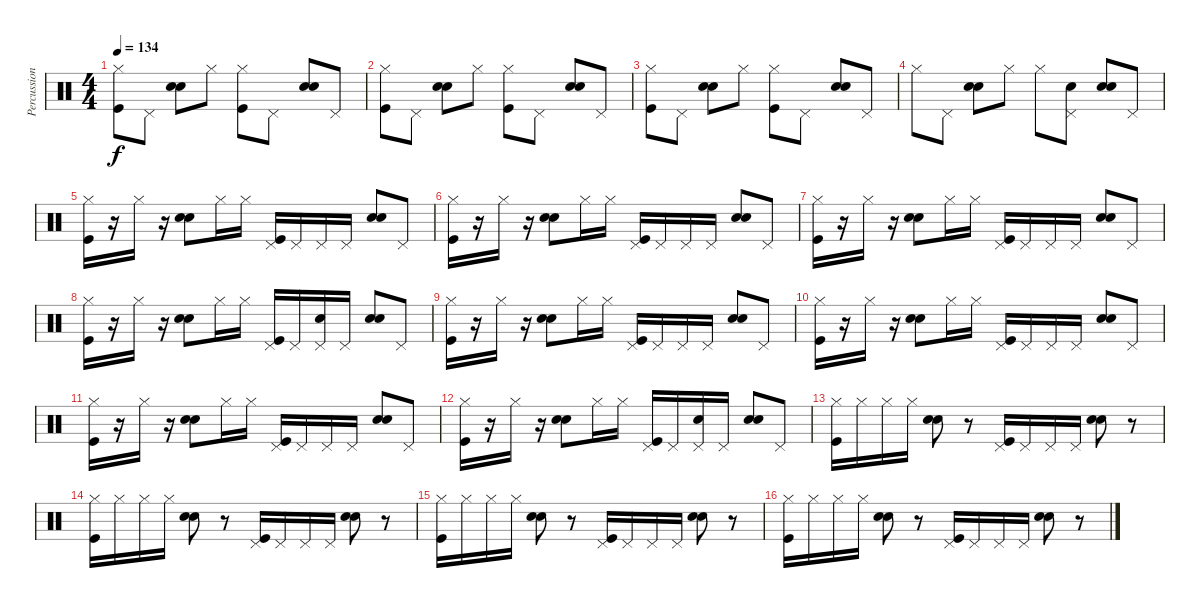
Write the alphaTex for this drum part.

\track ("Percussion" "Percussion") {instrument percussion}
\staff {score}
\articulation defaults
\ts (4 4)
\tempo 134
\clef neutral
\ks c
("Hi-Hat (closed)" "Kick (hit)").8{dy f} "Pedal Hi-Hat (hit)".8 ("Hand Clap (hit)" "Electric Snare (hit)").8 "Hi-Hat (closed)".8 ("Hi-Hat (closed)" "Kick (hit)").8 "Pedal Hi-Hat (hit)".8 ("Hand Clap (hit)" "Electric Snare (hit)").8 "Pedal Hi-Hat (hit)".8 |
("Hi-Hat (closed)" "Kick (hit)").8 "Pedal Hi-Hat (hit)".8 ("Hand Clap (hit)" "Electric Snare (hit)").8 "Hi-Hat (closed)".8 ("Hi-Hat (closed)" "Kick (hit)").8 "Pedal Hi-Hat (hit)".8 ("Hand Clap (hit)" "Electric Snare (hit)").8 "Pedal Hi-Hat (hit)".8 |
("Hi-Hat (closed)" "Kick (hit)").8 "Pedal Hi-Hat (hit)".8 ("Hand Clap (hit)" "Electric Snare (hit)").8 "Hi-Hat (closed)".8 ("Hi-Hat (closed)" "Kick (hit)").8 "Pedal Hi-Hat (hit)".8 ("Hand Clap (hit)" "Electric Snare (hit)").8 "Pedal Hi-Hat (hit)".8 |
"Hi-Hat (closed)".8 "Pedal Hi-Hat (hit)".8 ("Hand Clap (hit)" "Electric Snare (hit)").8 "Hi-Hat (closed)".8 "Hi-Hat (closed)".8 ("Pedal Hi-Hat (hit)" "Hand Clap (hit)").8 ("Hand Clap (hit)" "Electric Snare (hit)").8 "Pedal Hi-Hat (hit)".8 |
("Hi-Hat (closed)" "Kick (hit)").16 r.16 "Hi-Hat (closed)".16 r.16 ("Hand Clap (hit)" "Electric Snare (hit)").8 "Hi-Hat (closed)".16 "Hi-Hat (closed)".16 ("Pedal Hi-Hat (hit)" "Kick (hit)").16 "Pedal Hi-Hat (hit)".16 "Pedal Hi-Hat (hit)".16 "Pedal Hi-Hat (hit)".16 ("Hand Clap (hit)" "Electric Snare (hit)").8 "Pedal Hi-Hat (hit)".8 |
("Hi-Hat (closed)" "Kick (hit)").16 r.16 "Hi-Hat (closed)".16 r.16 ("Hand Clap (hit)" "Electric Snare (hit)").8 "Hi-Hat (closed)".16 "Hi-Hat (closed)".16 ("Pedal Hi-Hat (hit)" "Kick (hit)").16 "Pedal Hi-Hat (hit)".16 "Pedal Hi-Hat (hit)".16 "Pedal Hi-Hat (hit)".16 ("Hand Clap (hit)" "Electric Snare (hit)").8 "Pedal Hi-Hat (hit)".8 |
("Hi-Hat (closed)" "Kick (hit)").16 r.16 "Hi-Hat (closed)".16 r.16 ("Hand Clap (hit)" "Electric Snare (hit)").8 "Hi-Hat (closed)".16 "Hi-Hat (closed)".16 ("Pedal Hi-Hat (hit)" "Kick (hit)").16 "Pedal Hi-Hat (hit)".16 "Pedal Hi-Hat (hit)".16 "Pedal Hi-Hat (hit)".16 ("Hand Clap (hit)" "Electric Snare (hit)").8 "Pedal Hi-Hat (hit)".8 |
("Hi-Hat (closed)" "Kick (hit)").16 r.16 "Hi-Hat (closed)".16 r.16 ("Hand Clap (hit)" "Electric Snare (hit)").8 "Hi-Hat (closed)".16 "Hi-Hat (closed)".16 ("Pedal Hi-Hat (hit)" "Kick (hit)").16 "Pedal Hi-Hat (hit)".16 ("Pedal Hi-Hat (hit)" "Hand Clap (hit)").16 "Pedal Hi-Hat (hit)".16 ("Hand Clap (hit)" "Electric Snare (hit)").8 "Pedal Hi-Hat (hit)".8 |
("Hi-Hat (closed)" "Kick (hit)").16 r.16 "Hi-Hat (closed)".16 r.16 ("Hand Clap (hit)" "Electric Snare (hit)").8 "Hi-Hat (closed)".16 "Hi-Hat (closed)".16 ("Pedal Hi-Hat (hit)" "Kick (hit)").16 "Pedal Hi-Hat (hit)".16 "Pedal Hi-Hat (hit)".16 "Pedal Hi-Hat (hit)".16 ("Hand Clap (hit)" "Electric Snare (hit)").8 "Pedal Hi-Hat (hit)".8 |
("Hi-Hat (closed)" "Kick (hit)").16 r.16 "Hi-Hat (closed)".16 r.16 ("Hand Clap (hit)" "Electric Snare (hit)").8 "Hi-Hat (closed)".16 "Hi-Hat (closed)".16 ("Pedal Hi-Hat (hit)" "Kick (hit)").16 "Pedal Hi-Hat (hit)".16 "Pedal Hi-Hat (hit)".16 "Pedal Hi-Hat (hit)".16 ("Hand Clap (hit)" "Electric Snare (hit)").8 "Pedal Hi-Hat (hit)".8 |
("Hi-Hat (closed)" "Kick (hit)").16 r.16 "Hi-Hat (closed)".16 r.16 ("Hand Clap (hit)" "Electric Snare (hit)").8 "Hi-Hat (closed)".16 "Hi-Hat (closed)".16 ("Pedal Hi-Hat (hit)" "Kick (hit)").16 "Pedal Hi-Hat (hit)".16 "Pedal Hi-Hat (hit)".16 "Pedal Hi-Hat (hit)".16 ("Hand Clap (hit)" "Electric Snare (hit)").8 "Pedal Hi-Hat (hit)".8 |
("Hi-Hat (closed)" "Kick (hit)").16 r.16 "Hi-Hat (closed)".16 r.16 ("Hand Clap (hit)" "Electric Snare (hit)").8 "Hi-Hat (closed)".16 "Hi-Hat (closed)".16 ("Pedal Hi-Hat (hit)" "Kick (hit)").16 "Pedal Hi-Hat (hit)".16 ("Pedal Hi-Hat (hit)" "Hand Clap (hit)").16 "Pedal Hi-Hat (hit)".16 ("Hand Clap (hit)" "Electric Snare (hit)").8 "Pedal Hi-Hat (hit)".8 |
("Hi-Hat (closed)" "Kick (hit)").16 "Hi-Hat (closed)".16 "Hi-Hat (closed)".16 "Hi-Hat (closed)".16 ("Hand Clap (hit)" "Electric Snare (hit)").8 r.8 ("Pedal Hi-Hat (hit)" "Kick (hit)").16 "Pedal Hi-Hat (hit)".16 "Pedal Hi-Hat (hit)".16 "Pedal Hi-Hat (hit)".16 ("Hand Clap (hit)" "Electric Snare (hit)").8 r.8 |
("Hi-Hat (closed)" "Kick (hit)").16 "Hi-Hat (closed)".16 "Hi-Hat (closed)".16 "Hi-Hat (closed)".16 ("Hand Clap (hit)" "Electric Snare (hit)").8 r.8 ("Pedal Hi-Hat (hit)" "Kick (hit)").16 "Pedal Hi-Hat (hit)".16 "Pedal Hi-Hat (hit)".16 "Pedal Hi-Hat (hit)".16 ("Hand Clap (hit)" "Electric Snare (hit)").8 r.8 |
("Hi-Hat (closed)" "Kick (hit)").16 "Hi-Hat (closed)".16 "Hi-Hat (closed)".16 "Hi-Hat (closed)".16 ("Hand Clap (hit)" "Electric Snare (hit)").8 r.8 ("Pedal Hi-Hat (hit)" "Kick (hit)").16 "Pedal Hi-Hat (hit)".16 "Pedal Hi-Hat (hit)".16 "Pedal Hi-Hat (hit)".16 ("Hand Clap (hit)" "Electric Snare (hit)").8 r.8 |
("Hi-Hat (closed)" "Kick (hit)").16 "Hi-Hat (closed)".16 "Hi-Hat (closed)".16 "Hi-Hat (closed)".16 ("Hand Clap (hit)" "Electric Snare (hit)").8 r.8 ("Pedal Hi-Hat (hit)" "Kick (hit)").16 "Pedal Hi-Hat (hit)".16 "Pedal Hi-Hat (hit)".16 "Pedal Hi-Hat (hit)".16 ("Hand Clap (hit)" "Electric Snare (hit)").8 r.8
